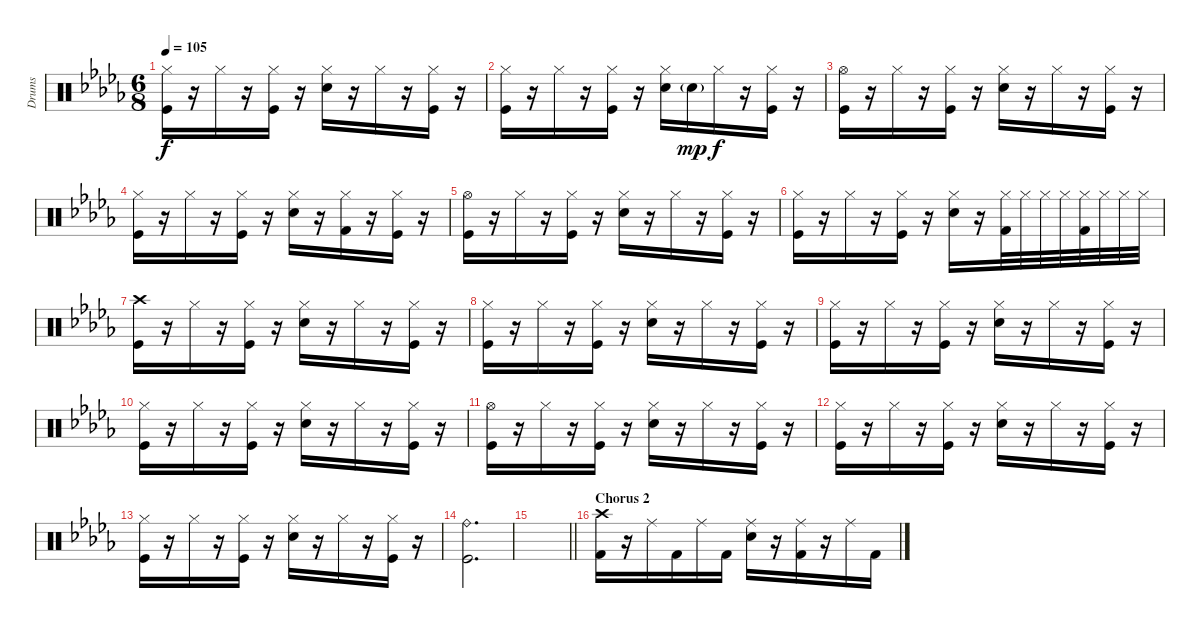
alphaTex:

\track ("Drums" "Drums") {instrument percussion}
\staff {score}
\articulation defaults
\ts (6 8)
\tempo 105
\clef neutral
\ks db
("Hi-Hat (closed)" "Kick (hit)").16{dy f} r.16 "Hi-Hat (closed)".16 r.16 ("Hi-Hat (closed)" "Kick (hit)").16 r.16 ("Hi-Hat (closed)" "Snare (hit) 2").16 r.16 "Hi-Hat (closed)".16 r.16 ("Hi-Hat (closed)" "Kick (hit)").16 r.16 |
("Hi-Hat (closed)" "Kick (hit)").16 r.16 "Hi-Hat (closed)".16 r.16 ("Hi-Hat (closed)" "Kick (hit)").16 r.16 ("Hi-Hat (closed)" "Snare (hit) 2").16 "Snare (hit) 2"{g}.16{dy mp} "Hi-Hat (closed)".16{dy f} r.16 ("Hi-Hat (closed)" "Kick (hit)").16 r.16 |
("Hi-Hat (open)" "Kick (hit)").16 r.16 "Hi-Hat (closed)".16 r.16 ("Hi-Hat (closed)" "Kick (hit)").16 r.16 ("Hi-Hat (closed)" "Snare (hit) 2").16 r.16 "Hi-Hat (closed)".16 r.16 ("Hi-Hat (closed)" "Kick (hit)").16 r.16 |
("Hi-Hat (closed)" "Kick (hit)").16 r.16 "Hi-Hat (closed)".16 r.16 ("Hi-Hat (closed)" "Kick (hit)").16 r.16 ("Hi-Hat (closed)" "Snare (hit) 2").16 r.16 ("Hi-Hat (closed)" "Kick (hit) 2").16 r.16 ("Hi-Hat (closed)" "Kick (hit)").16 r.16 |
("Hi-Hat (open)" "Kick (hit)").16 r.16 "Hi-Hat (closed)".16 r.16 ("Hi-Hat (closed)" "Kick (hit)").16 r.16 ("Hi-Hat (closed)" "Snare (hit) 2").16 r.16 "Hi-Hat (closed)".16 r.16 ("Hi-Hat (closed)" "Kick (hit)").16 r.16 |
("Hi-Hat (closed)" "Kick (hit)").16 r.16 "Hi-Hat (closed)".16 r.16 ("Hi-Hat (closed)" "Kick (hit)").16 r.16 ("Hi-Hat (closed)" "Snare (hit) 2").16 r.16 ("Hi-Hat (closed)" "Kick (hit) 2").32 "Hi-Hat (closed)".32 "Hi-Hat (closed)".32 "Hi-Hat (closed)".32 ("Hi-Hat (closed)" "Kick (hit) 2").32 "Hi-Hat (closed)".32 "Hi-Hat (closed)".32 "Hi-Hat (closed)".32 |
("Crash high (hit)" "Kick (hit)").16 r.16 "Hi-Hat (closed)".16 r.16 ("Hi-Hat (closed)" "Kick (hit)").16 r.16 ("Hi-Hat (closed)" "Snare (hit) 2").16 r.16 "Hi-Hat (closed)".16 r.16 ("Hi-Hat (closed)" "Kick (hit)").16 r.16 |
("Hi-Hat (closed)" "Kick (hit)").16 r.16 "Hi-Hat (closed)".16 r.16 ("Hi-Hat (closed)" "Kick (hit)").16 r.16 ("Hi-Hat (closed)" "Snare (hit) 2").16 r.16 "Hi-Hat (closed)".16 r.16 ("Hi-Hat (closed)" "Kick (hit)").16 r.16 |
("Hi-Hat (closed)" "Kick (hit)").16 r.16 "Hi-Hat (closed)".16 r.16 ("Hi-Hat (closed)" "Kick (hit)").16 r.16 ("Hi-Hat (closed)" "Snare (hit) 2").16 r.16 "Hi-Hat (closed)".16 r.16 ("Hi-Hat (closed)" "Kick (hit)").16 r.16 |
("Hi-Hat (closed)" "Kick (hit)").16 r.16 "Hi-Hat (closed)".16 r.16 ("Hi-Hat (closed)" "Kick (hit)").16 r.16 ("Hi-Hat (closed)" "Snare (hit) 2").16 r.16 "Hi-Hat (closed)".16 r.16 ("Hi-Hat (closed)" "Kick (hit)").16 r.16 |
("Hi-Hat (open)" "Kick (hit)").16 r.16 "Hi-Hat (closed)".16 r.16 ("Hi-Hat (closed)" "Kick (hit)").16 r.16 ("Hi-Hat (closed)" "Snare (hit) 2").16 r.16 "Hi-Hat (closed)".16 r.16 ("Hi-Hat (closed)" "Kick (hit)").16 r.16 |
("Hi-Hat (closed)" "Kick (hit)").16 r.16 "Hi-Hat (closed)".16 r.16 ("Hi-Hat (closed)" "Kick (hit)").16 r.16 ("Hi-Hat (closed)" "Snare (hit) 2").16 r.16 "Hi-Hat (closed)".16 r.16 ("Hi-Hat (closed)" "Kick (hit)").16 r.16 |
("Hi-Hat (closed)" "Kick (hit)").16 r.16 "Hi-Hat (closed)".16 r.16 ("Hi-Hat (closed)" "Kick (hit)").16 r.16 ("Hi-Hat (closed)" "Snare (hit) 2").16 r.16 "Hi-Hat (closed)".16 r.16 ("Hi-Hat (closed)" "Kick (hit)").16 r.16 |
("Kick (hit)" "Ride (bell)").2{d} |
\barLineRight lightlight
|
\section ("" "Chorus 2")
("Crash high (hit)" "Kick (hit) 2").16 r.16 "Ride (middle)".16 "Kick (hit) 2".16 "Ride (middle)".16 "Kick (hit) 2".16 ("Ride (middle)" "Snare (hit) 2").16 r.16 ("Ride (middle)" "Kick (hit) 2").16 r.16 "Ride (middle)".16 "Kick (hit) 2".16
